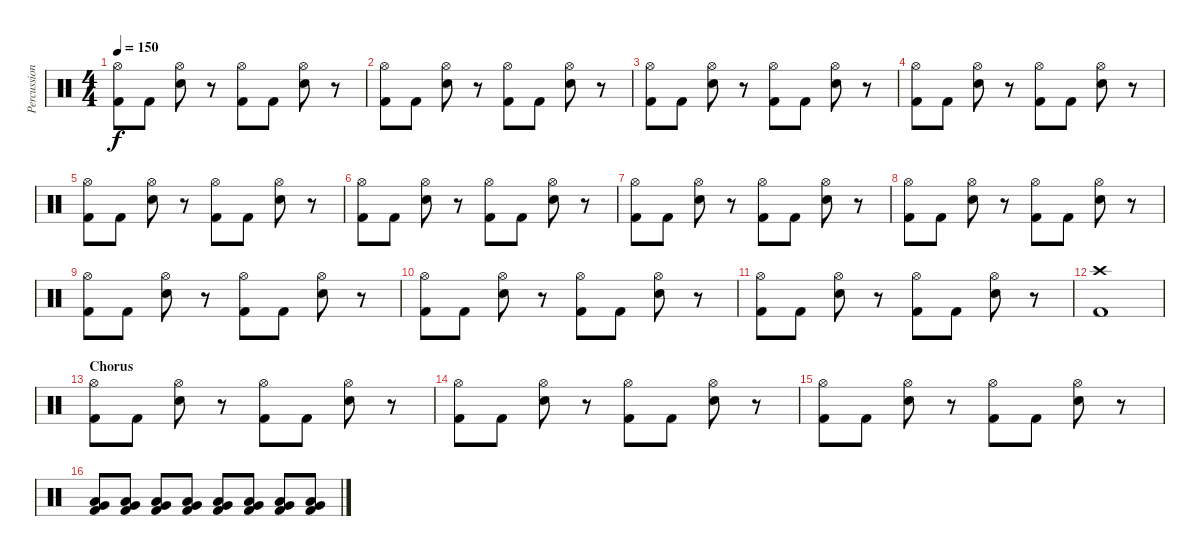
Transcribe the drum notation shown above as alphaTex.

\track ("Percussion" "Percussion") {instrument percussion}
\staff {score}
\articulation defaults
\ts (4 4)
\tempo 150
\clef neutral
\ks c
("Hi-Hat (open)" "Kick (hit) 2").8{dy f} "Kick (hit) 2".8 ("Hi-Hat (open)" "Electric Snare (hit)").8 r.8 ("Hi-Hat (open)" "Kick (hit) 2").8 "Kick (hit) 2".8 ("Hi-Hat (open)" "Electric Snare (hit)").8 r.8 |
("Hi-Hat (open)" "Kick (hit) 2").8 "Kick (hit) 2".8 ("Hi-Hat (open)" "Electric Snare (hit)").8 r.8 ("Hi-Hat (open)" "Kick (hit) 2").8 "Kick (hit) 2".8 ("Hi-Hat (open)" "Electric Snare (hit)").8 r.8 |
("Hi-Hat (open)" "Kick (hit) 2").8 "Kick (hit) 2".8 ("Hi-Hat (open)" "Electric Snare (hit)").8 r.8 ("Hi-Hat (open)" "Kick (hit) 2").8 "Kick (hit) 2".8 ("Hi-Hat (open)" "Electric Snare (hit)").8 r.8 |
("Hi-Hat (open)" "Kick (hit) 2").8 "Kick (hit) 2".8 ("Hi-Hat (open)" "Electric Snare (hit)").8 r.8 ("Hi-Hat (open)" "Kick (hit) 2").8 "Kick (hit) 2".8 ("Hi-Hat (open)" "Electric Snare (hit)").8 r.8 |
("Hi-Hat (open)" "Kick (hit) 2").8 "Kick (hit) 2".8 ("Hi-Hat (open)" "Electric Snare (hit)").8 r.8 ("Hi-Hat (open)" "Kick (hit) 2").8 "Kick (hit) 2".8 ("Hi-Hat (open)" "Electric Snare (hit)").8 r.8 |
("Hi-Hat (open)" "Kick (hit) 2").8 "Kick (hit) 2".8 ("Hi-Hat (open)" "Electric Snare (hit)").8 r.8 ("Hi-Hat (open)" "Kick (hit) 2").8 "Kick (hit) 2".8 ("Hi-Hat (open)" "Electric Snare (hit)").8 r.8 |
("Hi-Hat (open)" "Kick (hit) 2").8 "Kick (hit) 2".8 ("Hi-Hat (open)" "Electric Snare (hit)").8 r.8 ("Hi-Hat (open)" "Kick (hit) 2").8 "Kick (hit) 2".8 ("Hi-Hat (open)" "Electric Snare (hit)").8 r.8 |
("Hi-Hat (open)" "Kick (hit) 2").8 "Kick (hit) 2".8 ("Hi-Hat (open)" "Electric Snare (hit)").8 r.8 ("Hi-Hat (open)" "Kick (hit) 2").8 "Kick (hit) 2".8 ("Hi-Hat (open)" "Electric Snare (hit)").8 r.8 |
("Hi-Hat (open)" "Kick (hit) 2").8 "Kick (hit) 2".8 ("Hi-Hat (open)" "Electric Snare (hit)").8 r.8 ("Hi-Hat (open)" "Kick (hit) 2").8 "Kick (hit) 2".8 ("Hi-Hat (open)" "Electric Snare (hit)").8 r.8 |
("Hi-Hat (open)" "Kick (hit) 2").8 "Kick (hit) 2".8 ("Hi-Hat (open)" "Electric Snare (hit)").8 r.8 ("Hi-Hat (open)" "Kick (hit) 2").8 "Kick (hit) 2".8 ("Hi-Hat (open)" "Electric Snare (hit)").8 r.8 |
("Hi-Hat (open)" "Kick (hit) 2").8 "Kick (hit) 2".8 ("Hi-Hat (open)" "Electric Snare (hit)").8 r.8 ("Hi-Hat (open)" "Kick (hit) 2").8 "Kick (hit) 2".8 ("Hi-Hat (open)" "Electric Snare (hit)").8 r.8 |
("Crash high (hit)" "Kick (hit) 2").1 |
\section ("" "Chorus")
("Hi-Hat (open)" "Kick (hit) 2").8 "Kick (hit) 2".8 ("Hi-Hat (open)" "Electric Snare (hit)").8 r.8 ("Hi-Hat (open)" "Kick (hit) 2").8 "Kick (hit) 2".8 ("Hi-Hat (open)" "Electric Snare (hit)").8 r.8 |
("Hi-Hat (open)" "Kick (hit) 2").8 "Kick (hit) 2".8 ("Hi-Hat (open)" "Electric Snare (hit)").8 r.8 ("Hi-Hat (open)" "Kick (hit) 2").8 "Kick (hit) 2".8 ("Hi-Hat (open)" "Electric Snare (hit)").8 r.8 |
("Hi-Hat (open)" "Kick (hit) 2").8 "Kick (hit) 2".8 ("Hi-Hat (open)" "Electric Snare (hit)").8 r.8 ("Hi-Hat (open)" "Kick (hit) 2").8 "Kick (hit) 2".8 ("Hi-Hat (open)" "Electric Snare (hit)").8 r.8 |
("Low Tom (hit)" "Very Low Tom (hit)" "Kick (hit) 2").8 ("Low Tom (hit)" "Very Low Tom (hit)" "Kick (hit) 2").8 ("Low Tom (hit)" "Very Low Tom (hit)" "Kick (hit) 2").8 ("Low Tom (hit)" "Very Low Tom (hit)" "Kick (hit) 2").8 ("Low Tom (hit)" "Very Low Tom (hit)" "Kick (hit) 2").8 ("Low Tom (hit)" "Very Low Tom (hit)" "Kick (hit) 2").8 ("Low Tom (hit)" "Very Low Tom (hit)" "Kick (hit) 2").8 ("Low Tom (hit)" "Very Low Tom (hit)" "Kick (hit) 2").8
